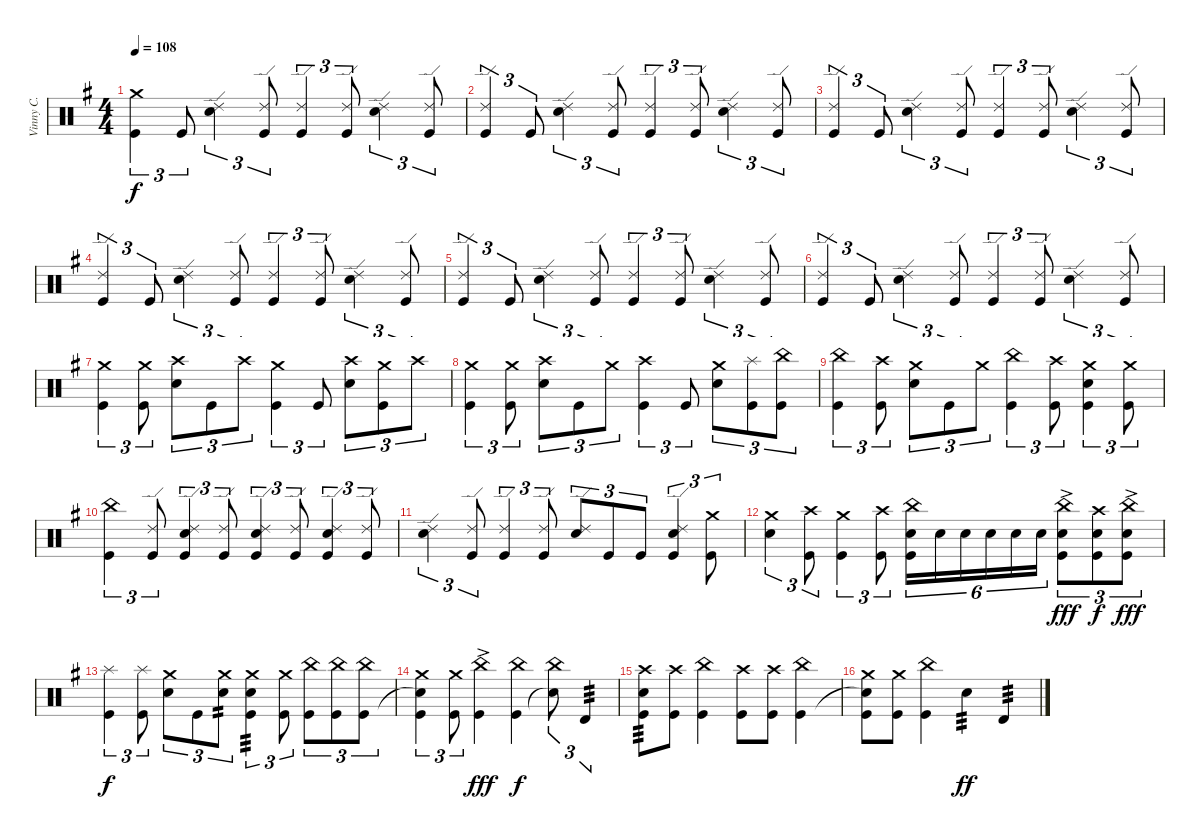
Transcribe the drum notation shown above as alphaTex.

\track ("Vinny C." "Vinny C.") {instrument percussion}
\staff {score}
\articulation defaults
\ts (4 4)
\tempo 108
\clef neutral
\ks g
("Crash medium (hit)" "Kick (hit)").4{tu (3 2) dy f} "Kick (hit)".8{tu (3 2)} ("Ride (edge) 2" "Electric Snare (hit)").4{tu (3 2)} ("Ride (edge) 2" "Kick (hit)").8{tu (3 2)} ("Ride (edge) 2" "Kick (hit)").4{tu (3 2)} ("Ride (edge) 2" "Kick (hit)").8{tu (3 2)} ("Ride (edge) 2" "Electric Snare (hit)").4{tu (3 2)} ("Ride (edge) 2" "Kick (hit)").8{tu (3 2)} |
("Ride (edge) 2" "Kick (hit)").4{tu (3 2)} "Kick (hit)".8{tu (3 2)} ("Ride (edge) 2" "Electric Snare (hit)").4{tu (3 2)} ("Ride (edge) 2" "Kick (hit)").8{tu (3 2)} ("Ride (edge) 2" "Kick (hit)").4{tu (3 2)} ("Ride (edge) 2" "Kick (hit)").8{tu (3 2)} ("Ride (edge) 2" "Electric Snare (hit)").4{tu (3 2)} ("Ride (edge) 2" "Kick (hit)").8{tu (3 2)} |
("Ride (edge) 2" "Kick (hit)").4{tu (3 2)} "Kick (hit)".8{tu (3 2)} ("Ride (edge) 2" "Electric Snare (hit)").4{tu (3 2)} ("Ride (edge) 2" "Kick (hit)").8{tu (3 2)} ("Ride (edge) 2" "Kick (hit)").4{tu (3 2)} ("Ride (edge) 2" "Kick (hit)").8{tu (3 2)} ("Ride (edge) 2" "Electric Snare (hit)").4{tu (3 2)} ("Ride (edge) 2" "Kick (hit)").8{tu (3 2)} |
("Ride (edge) 2" "Kick (hit)").4{tu (3 2)} "Kick (hit)".8{tu (3 2)} ("Ride (edge) 2" "Electric Snare (hit)").4{tu (3 2)} ("Ride (edge) 2" "Kick (hit)").8{tu (3 2)} ("Ride (edge) 2" "Kick (hit)").4{tu (3 2)} ("Ride (edge) 2" "Kick (hit)").8{tu (3 2)} ("Ride (edge) 2" "Electric Snare (hit)").4{tu (3 2)} ("Ride (edge) 2" "Kick (hit)").8{tu (3 2)} |
("Ride (edge) 2" "Kick (hit)").4{tu (3 2)} "Kick (hit)".8{tu (3 2)} ("Ride (edge) 2" "Electric Snare (hit)").4{tu (3 2)} ("Ride (edge) 2" "Kick (hit)").8{tu (3 2)} ("Ride (edge) 2" "Kick (hit)").4{tu (3 2)} ("Ride (edge) 2" "Kick (hit)").8{tu (3 2)} ("Ride (edge) 2" "Electric Snare (hit)").4{tu (3 2)} ("Ride (edge) 2" "Kick (hit)").8{tu (3 2)} |
("Ride (edge) 2" "Kick (hit)").4{tu (3 2)} "Kick (hit)".8{tu (3 2)} ("Ride (edge) 2" "Electric Snare (hit)").4{tu (3 2)} ("Ride (edge) 2" "Kick (hit)").8{tu (3 2)} ("Ride (edge) 2" "Kick (hit)").4{tu (3 2)} ("Ride (edge) 2" "Kick (hit)").8{tu (3 2)} ("Ride (edge) 2" "Electric Snare (hit)").4{tu (3 2)} ("Ride (edge) 2" "Kick (hit)").8{tu (3 2)} |
("Crash medium (hit)" "Kick (hit)").4{tu (3 2)} ("Crash medium (hit)" "Kick (hit)").8{tu (3 2)} ("Crash high (hit)" "Electric Snare (hit)").8{tu (3 2)} "Kick (hit)".8{tu (3 2)} "Crash high (hit)".8{tu (3 2)} ("Crash medium (hit)" "Kick (hit)").4{tu (3 2)} "Kick (hit)".8{tu (3 2)} ("Crash high (hit)" "Electric Snare (hit)").8{tu (3 2)} ("Crash medium (hit)" "Kick (hit)").8{tu (3 2)} "Crash high (hit)".8{tu (3 2)} |
("Crash medium (hit)" "Kick (hit)").4{tu (3 2)} ("Crash medium (hit)" "Kick (hit)").8{tu (3 2)} ("Crash high (hit)" "Electric Snare (hit)").8{tu (3 2)} "Kick (hit)".8{tu (3 2)} "Crash medium (hit)".8{tu (3 2)} ("Crash high (hit)" "Kick (hit)").4{tu (3 2)} "Kick (hit)".8{tu (3 2)} ("Crash medium (hit)" "Electric Snare (hit)").8{tu (3 2)} ("Splash (hit)" "Kick (hit)").8{tu (3 2)} ("China (hit)" "Kick (hit)").8{tu (3 2)} |
("China (hit)" "Kick (hit)").4{tu (3 2)} ("Crash high (hit)" "Kick (hit)").8{tu (3 2)} ("Crash medium (hit)" "Electric Snare (hit)").8{tu (3 2)} "Kick (hit)".8{tu (3 2)} "Crash medium (hit)".8{tu (3 2)} ("China (hit)" "Kick (hit)").4{tu (3 2)} ("Crash high (hit)" "Kick (hit)").8{tu (3 2)} ("Crash medium (hit)" "Electric Snare (hit)" "Kick (hit)").4{tu (3 2)} ("Crash medium (hit)" "Kick (hit)").8{tu (3 2)} |
("China (hit)" "Kick (hit)").4{tu (3 2)} ("Ride (edge) 2" "Kick (hit)").8{tu (3 2)} ("Ride (edge) 2" "Electric Snare (hit)" "Kick (hit)").4{tu (3 2)} ("Ride (edge) 2" "Kick (hit)").8{tu (3 2)} ("Ride (edge) 2" "Electric Snare (hit)" "Kick (hit)").4{tu (3 2)} ("Ride (edge) 2" "Kick (hit)").8{tu (3 2)} ("Ride (edge) 2" "Electric Snare (hit)" "Kick (hit)").4{tu (3 2)} ("Ride (edge) 2" "Kick (hit)").8{tu (3 2)} |
("Ride (edge) 2" "Electric Snare (hit)").4{tu (3 2)} ("Ride (edge) 2" "Kick (hit)").8{tu (3 2)} ("Ride (edge) 2" "Kick (hit)").4{tu (3 2)} ("Ride (edge) 2" "Kick (hit)").8{tu (3 2)} ("Ride (edge) 2" "Electric Snare (hit)").8{tu (3 2)} "Kick (hit)".8{tu (3 2)} "Kick (hit)".8{tu (3 2)} ("Ride (edge) 2" "Electric Snare (hit)" "Kick (hit)").4{tu (3 2)} ("Crash medium (hit)" "Kick (hit)").8{tu (3 2)} |
("Crash medium (hit)" "Electric Snare (hit)").4{tu (3 2)} ("Crash high (hit)" "Kick (hit)").8{tu (3 2)} ("Crash medium (hit)" "Kick (hit)").4{tu (3 2)} ("Crash high (hit)" "Kick (hit)").8{tu (3 2)} ("China (hit)" "Electric Snare (hit)" "Kick (hit)").16{tu (6 4)} "Electric Snare (hit)".16{tu (6 4)} "Electric Snare (hit)".16{tu (6 4)} "Electric Snare (hit)".16{tu (6 4)} "Electric Snare (hit)".16{tu (6 4)} "Electric Snare (hit)".16{tu (6 4)} ("China (hit)"{ac} "Electric Snare (hit)" "Kick (hit)").8{tu (3 2) dy fff} ("Crash high (hit)" "Electric Snare (hit)" "Kick (hit)").8{tu (3 2) dy f} ("China (hit)"{ac} "Electric Snare (hit)" "Kick (hit)").8{tu (3 2) dy fff} |
("Splash (hit)" "Kick (hit)").4{tu (3 2) dy f} ("Splash (hit)" "Kick (hit)").8{tu (3 2)} ("Crash medium (hit)" "Electric Snare (hit)").8{tu (3 2)} "Kick (hit)".8{tu (3 2)} ("Crash medium (hit)" "Electric Snare (hit)").8{tu (3 2) tp 2} ("Crash medium (hit)" "Electric Snare (hit)" "Kick (hit)").4{tu (3 2) tp 3} ("Crash medium (hit)" "Kick (hit)").8{tu (3 2)} ("China (hit)" "Kick (hit)").8{tu (3 2)} ("China (hit)" "Kick (hit)").8{tu (3 2)} ("China (hit)" "Kick (hit)").8{tu (3 2)} |
("Crash medium (hit)" "Electric Snare (hit)"{t} "Kick (hit)").4{tu (3 2)} ("Crash medium (hit)" "Kick (hit)").8{tu (3 2)} ("China (hit)"{ac} "Kick (hit)").4{dy fff} ("China (hit)" "Kick (hit)").4{dy f} ("China (hit)" "Electric Snare (hit)"{t}).8{tu (3 2)} "Timbale high (hit)".4{tu (3 2) tp 3} |
("Crash high (hit)" "Electric Snare (hit)" "Kick (hit)").8{tp 3} ("Crash high (hit)" "Kick (hit)").8 ("China (hit)" "Kick (hit)").4 ("Crash high (hit)" "Kick (hit)").8 ("Crash high (hit)" "Kick (hit)").8 ("China (hit)" "Kick (hit)").4 |
("Crash medium (hit)" "Electric Snare (hit)"{t} "Kick (hit)").8 ("Crash medium (hit)" "Kick (hit)").8 ("China (hit)" "Kick (hit)").4 "Electric Snare (hit)".4{tp 3 dy ff} "Timbale high (hit)".4{tp 3}
